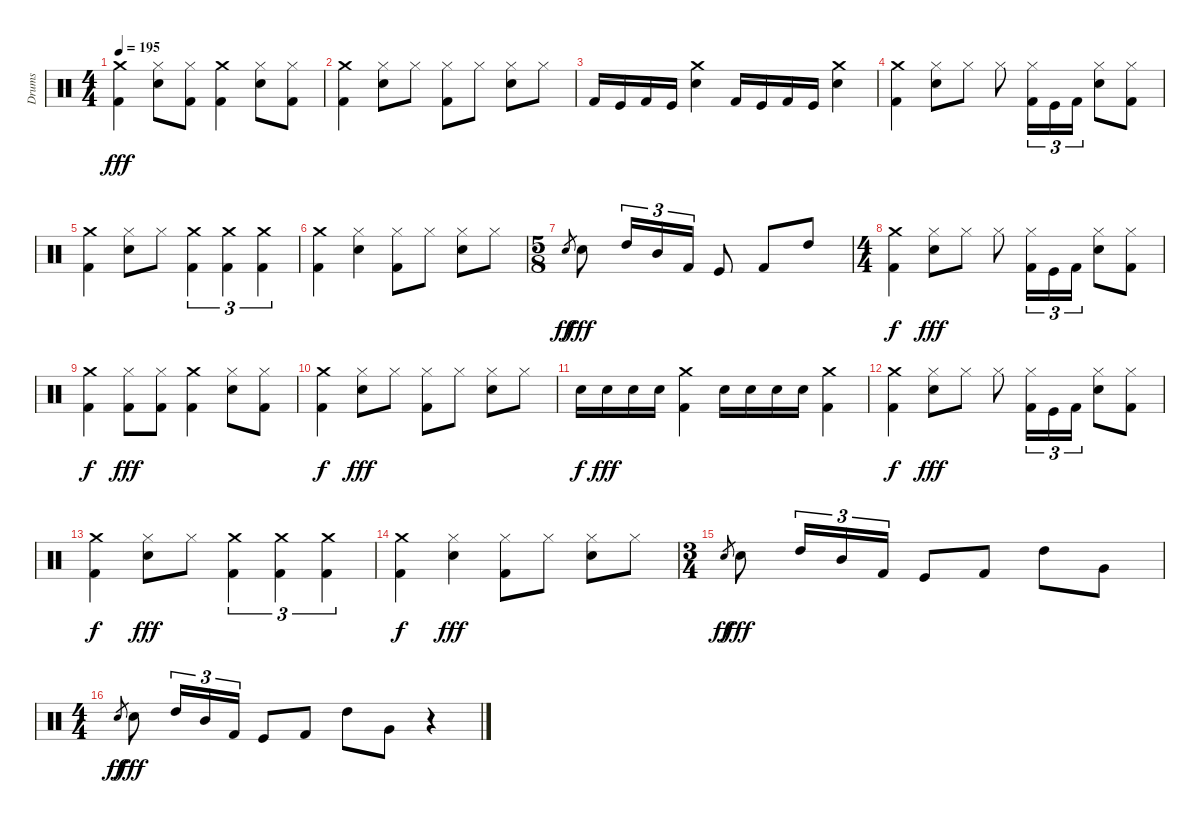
\track ("Drums" "Drums") {instrument percussion}
\staff {score}
\articulation defaults
\ts (4 4)
\tempo 195
\clef neutral
\ks c
("Kick (hit) 2" "Crash medium (hit)").4{dy fff} ("Hi-Hat (closed)" "Snare (hit) 2").8 ("Kick (hit) 2" "Hi-Hat (closed)").8 ("Crash medium (hit)" "Kick (hit) 2").4 ("Hi-Hat (closed)" "Snare (hit) 2").8 ("Kick (hit) 2" "Hi-Hat (closed)").8 |
("Kick (hit) 2" "Crash medium (hit)").4 ("Hi-Hat (closed)" "Snare (hit) 2").8 "Hi-Hat (closed)".8 ("Hi-Hat (closed)" "Kick (hit) 2").8 "Hi-Hat (closed)".8 ("Snare (hit) 2" "Hi-Hat (closed)").8 "Hi-Hat (closed)".8 |
"Kick (hit) 2".16 "Kick (hit)".16 "Kick (hit) 2".16 "Kick (hit)".16 ("Crash medium (hit)" "Snare (hit) 2").4 "Kick (hit) 2".16 "Kick (hit)".16 "Kick (hit) 2".16 "Kick (hit)".16 ("Snare (hit) 2" "Crash medium (hit)").4 |
("Kick (hit) 2" "Crash medium (hit)").4 ("Snare (hit) 2" "Hi-Hat (closed)").8 "Hi-Hat (closed)".8 "Hi-Hat (closed)".8 ("Kick (hit) 2" "Hi-Hat (closed)").16{tu (3 2)} "Kick (hit)".16{tu (3 2)} "Kick (hit) 2".16{tu (3 2)} ("Snare (hit) 2" "Hi-Hat (closed)").8 ("Kick (hit) 2" "Hi-Hat (closed)").8 |
("Kick (hit) 2" "Crash medium (hit)").4 ("Hi-Hat (closed)" "Snare (hit) 2").8 "Hi-Hat (closed)".8 ("Kick (hit) 2" "Crash medium (hit)").4{tu (3 2)} ("Kick (hit) 2" "Crash medium (hit)").4{tu (3 2)} ("Kick (hit) 2" "Crash medium (hit)").4{tu (3 2)} |
("Kick (hit) 2" "Crash medium (hit)").4 ("Hi-Hat (closed)" "Snare (hit) 2").4 ("Hi-Hat (closed)" "Kick (hit) 2").8 "Hi-Hat (closed)".8 ("Snare (hit) 2" "Hi-Hat (closed)").8 "Hi-Hat (closed)".8 |
\ts (5 8)
"Snare (hit)".8{gr dy ff} "Snare (hit) 2".8{dy fff} "High Tom (hit)".16{tu (3 2)} "Mid Tom (hit)".16{tu (3 2)} "Kick (hit) 2".16{tu (3 2)} "Kick (hit)".8 "Kick (hit) 2".8 "High Tom (hit)".8 |
\ts (4 4)
("Kick (hit) 2" "Crash medium (hit)").4{dy f} ("Snare (hit) 2" "Hi-Hat (closed)").8{dy fff} "Hi-Hat (closed)".8 "Hi-Hat (closed)".8 ("Kick (hit) 2" "Hi-Hat (closed)").16{tu (3 2)} "Kick (hit)".16{tu (3 2)} "Kick (hit) 2".16{tu (3 2)} ("Snare (hit) 2" "Hi-Hat (closed)").8 ("Kick (hit) 2" "Hi-Hat (closed)").8 |
("Kick (hit) 2" "Crash medium (hit)").4{dy f} ("Hi-Hat (closed)" "Kick (hit) 2").8{dy fff} ("Kick (hit) 2" "Hi-Hat (closed)").8 ("Crash medium (hit)" "Kick (hit) 2").4 ("Hi-Hat (closed)" "Snare (hit) 2").8 ("Kick (hit) 2" "Hi-Hat (closed)").8 |
("Kick (hit) 2" "Crash medium (hit)").4{dy f} ("Hi-Hat (closed)" "Snare (hit) 2").8{dy fff} "Hi-Hat (closed)".8 ("Hi-Hat (closed)" "Kick (hit) 2").8 "Hi-Hat (closed)".8 ("Snare (hit) 2" "Hi-Hat (closed)").8 "Hi-Hat (closed)".8 |
"Snare (hit) 2".16{dy f} "Snare (hit) 2".16{dy fff} "Snare (hit) 2".16 "Snare (hit) 2".16 ("Kick (hit) 2" "Crash medium (hit)").4 "Snare (hit) 2".16 "Snare (hit) 2".16 "Snare (hit) 2".16 "Snare (hit) 2".16 ("Kick (hit) 2" "Crash medium (hit)").4 |
("Kick (hit) 2" "Crash medium (hit)").4{dy f} ("Snare (hit) 2" "Hi-Hat (closed)").8{dy fff} "Hi-Hat (closed)".8 "Hi-Hat (closed)".8 ("Kick (hit) 2" "Hi-Hat (closed)").16{tu (3 2)} "Kick (hit)".16{tu (3 2)} "Kick (hit) 2".16{tu (3 2)} ("Snare (hit) 2" "Hi-Hat (closed)").8 ("Kick (hit) 2" "Hi-Hat (closed)").8 |
("Kick (hit) 2" "Crash medium (hit)").4{dy f} ("Hi-Hat (closed)" "Snare (hit) 2").8{dy fff} "Hi-Hat (closed)".8 ("Kick (hit) 2" "Crash medium (hit)").4{tu (3 2)} ("Kick (hit) 2" "Crash medium (hit)").4{tu (3 2)} ("Kick (hit) 2" "Crash medium (hit)").4{tu (3 2)} |
("Kick (hit) 2" "Crash medium (hit)").4{dy f} ("Hi-Hat (closed)" "Snare (hit) 2").4{dy fff} ("Hi-Hat (closed)" "Kick (hit) 2").8 "Hi-Hat (closed)".8 ("Snare (hit) 2" "Hi-Hat (closed)").8 "Hi-Hat (closed)".8 |
\ts (3 4)
"Snare (hit)".8{gr dy ff} "Snare (hit) 2".8{dy fff} "High Tom (hit)".16{tu (3 2)} "Mid Tom (hit)".16{tu (3 2)} "Kick (hit) 2".16{tu (3 2)} "Kick (hit)".8 "Kick (hit) 2".8 "High Tom (hit)".8 "Very Low Tom (hit)".8 |
\ts (4 4)
"Snare (hit)".8{gr dy ff} "Snare (hit) 2".8{dy fff} "High Tom (hit)".16{tu (3 2)} "Mid Tom (hit)".16{tu (3 2)} "Kick (hit) 2".16{tu (3 2)} "Kick (hit)".8 "Kick (hit) 2".8 "High Tom (hit)".8 "Very Low Tom (hit)".8 r.4
